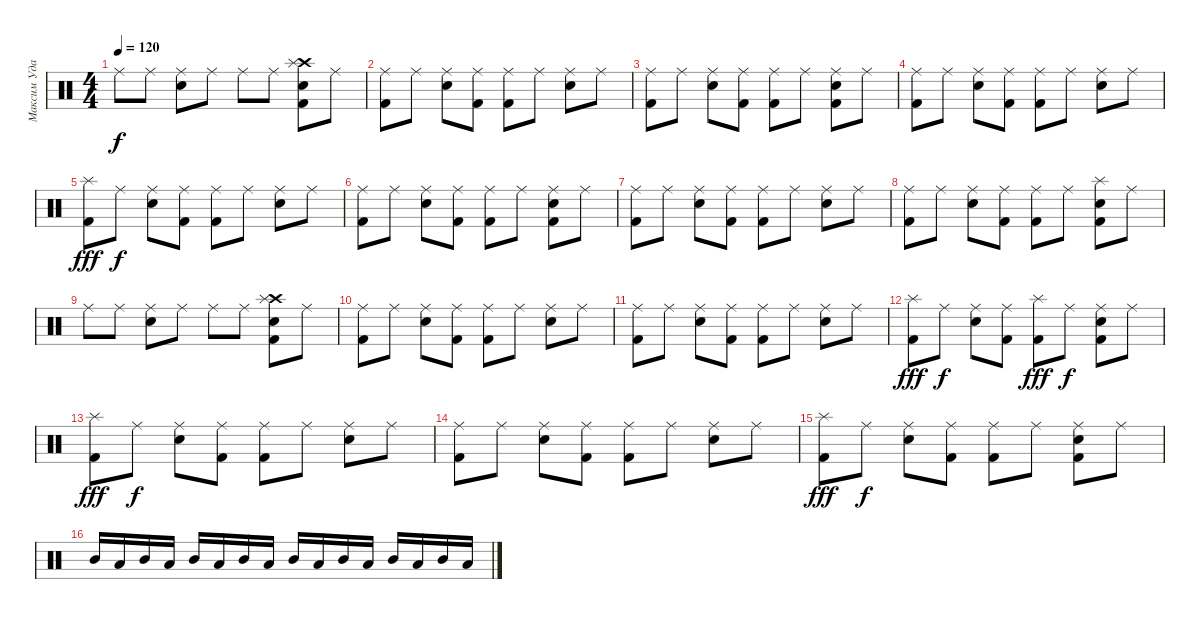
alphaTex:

\track ("Максим Удалов" "Максим Уда") {instrument percussion}
\staff {score}
\articulation defaults
\ts (4 4)
\tempo 120
\clef neutral
\ks c "Ride (middle)".8{dy f} "Ride (middle)".8
("Ride (middle)" "Electric Snare (hit)").8 "Ride (middle)".8 "Ride (middle)".8 "Ride (middle)".8 ("Crash high (hit)" "Kick (hit) 2" "Splash (hit)" "Electric Snare (hit)").8 "Ride (middle)".8 |
("Kick (hit) 2" "Ride (middle)").8 "Ride (middle)".8 ("Ride (middle)" "Electric Snare (hit)").8 ("Kick (hit) 2" "Ride (middle)").8 ("Kick (hit) 2" "Ride (middle)").8 "Ride (middle)".8 ("Ride (middle)" "Electric Snare (hit)").8 "Ride (middle)".8 |
("Kick (hit) 2" "Ride (middle)").8 "Ride (middle)".8 ("Ride (middle)" "Electric Snare (hit)").8 ("Kick (hit) 2" "Ride (middle)").8 ("Kick (hit) 2" "Ride (middle)").8 "Ride (middle)".8 ("Kick (hit) 2" "Ride (middle)" "Electric Snare (hit)").8 "Ride (middle)".8 |
("Kick (hit) 2" "Ride (middle)").8 "Ride (middle)".8 ("Ride (middle)" "Electric Snare (hit)").8 ("Kick (hit) 2" "Ride (middle)").8 ("Kick (hit) 2" "Ride (middle)").8 "Ride (middle)".8 ("Ride (middle)" "Electric Snare (hit)").8 "Ride (middle)".8 |
("Kick (hit) 2" "Splash (hit)").8{dy fff} "Ride (middle)".8{dy f} ("Ride (middle)" "Electric Snare (hit)").8 ("Kick (hit) 2" "Ride (middle)").8 ("Kick (hit) 2" "Ride (middle)").8 "Ride (middle)".8 ("Ride (middle)" "Electric Snare (hit)").8 "Ride (middle)".8 |
("Kick (hit) 2" "Ride (middle)").8 "Ride (middle)".8 ("Ride (middle)" "Electric Snare (hit)").8 ("Kick (hit) 2" "Ride (middle)").8 ("Kick (hit) 2" "Ride (middle)").8 "Ride (middle)".8 ("Kick (hit) 2" "Ride (middle)" "Electric Snare (hit)").8 "Ride (middle)".8 |
("Kick (hit) 2" "Ride (middle)").8 "Ride (middle)".8 ("Ride (middle)" "Electric Snare (hit)").8 ("Kick (hit) 2" "Ride (middle)").8 ("Kick (hit) 2" "Ride (middle)").8 "Ride (middle)".8 ("Ride (middle)" "Electric Snare (hit)").8 "Ride (middle)".8 |
("Kick (hit) 2" "Ride (middle)").8 "Ride (middle)".8 ("Ride (middle)" "Electric Snare (hit)").8 ("Kick (hit) 2" "Ride (middle)").8 ("Kick (hit) 2" "Ride (middle)").8 "Ride (middle)".8 ("Kick (hit) 2" "Splash (hit)" "Electric Snare (hit)").8 "Ride (middle)".8 |
"Ride (middle)".8 "Ride (middle)".8 ("Ride (middle)" "Electric Snare (hit)").8 "Ride (middle)".8 "Ride (middle)".8 "Ride (middle)".8 ("Crash high (hit)" "Kick (hit) 2" "Splash (hit)" "Electric Snare (hit)").8 "Ride (middle)".8 |
("Kick (hit) 2" "Ride (middle)").8 "Ride (middle)".8 ("Ride (middle)" "Electric Snare (hit)").8 ("Kick (hit) 2" "Ride (middle)").8 ("Kick (hit) 2" "Ride (middle)").8 "Ride (middle)".8 ("Ride (middle)" "Electric Snare (hit)").8 "Ride (middle)".8 |
("Kick (hit) 2" "Ride (middle)").8 "Ride (middle)".8 ("Ride (middle)" "Electric Snare (hit)").8 ("Kick (hit) 2" "Ride (middle)").8 ("Kick (hit) 2" "Ride (middle)").8 "Ride (middle)".8 ("Ride (middle)" "Electric Snare (hit)").8 "Ride (middle)".8 |
("Kick (hit) 2" "Splash (hit)").8{dy fff} "Ride (middle)".8{dy f} ("Ride (middle)" "Electric Snare (hit)").8 ("Kick (hit) 2" "Ride (middle)").8 ("Kick (hit) 2" "Splash (hit)").8{dy fff} "Ride (middle)".8{dy f} ("Kick (hit) 2" "Ride (middle)" "Electric Snare (hit)").8 "Ride (middle)".8 |
("Kick (hit) 2" "Splash (hit)").8{dy fff} "Ride (middle)".8{dy f} ("Ride (middle)" "Electric Snare (hit)").8 ("Kick (hit) 2" "Ride (middle)").8 ("Kick (hit) 2" "Ride (middle)").8 "Ride (middle)".8 ("Ride (middle)" "Electric Snare (hit)").8 "Ride (middle)".8 |
("Kick (hit) 2" "Ride (middle)").8 "Ride (middle)".8 ("Ride (middle)" "Electric Snare (hit)").8 ("Kick (hit) 2" "Ride (middle)").8 ("Kick (hit) 2" "Ride (middle)").8 "Ride (middle)".8 ("Ride (middle)" "Electric Snare (hit)").8 "Ride (middle)".8 |
("Kick (hit) 2" "Splash (hit)").8{dy fff} "Ride (middle)".8{dy f} ("Ride (middle)" "Electric Snare (hit)").8 ("Kick (hit) 2" "Ride (middle)").8 ("Kick (hit) 2" "Ride (middle)").8 "Ride (middle)".8 ("Kick (hit) 2" "Ride (middle)" "Electric Snare (hit)").8 "Ride (middle)".8 |
"Mid Tom (hit)".16 "Low Tom (hit)".16 "Mid Tom (hit)".16 "Low Tom (hit)".16 "Mid Tom (hit)".16 "Low Tom (hit)".16 "Mid Tom (hit)".16 "Low Tom (hit)".16 "Mid Tom (hit)".16 "Low Tom (hit)".16 "Mid Tom (hit)".16 "Low Tom (hit)".16 "Mid Tom (hit)".16 "Low Tom (hit)".16 "Mid Tom (hit)".16 "Low Tom (hit)".16
